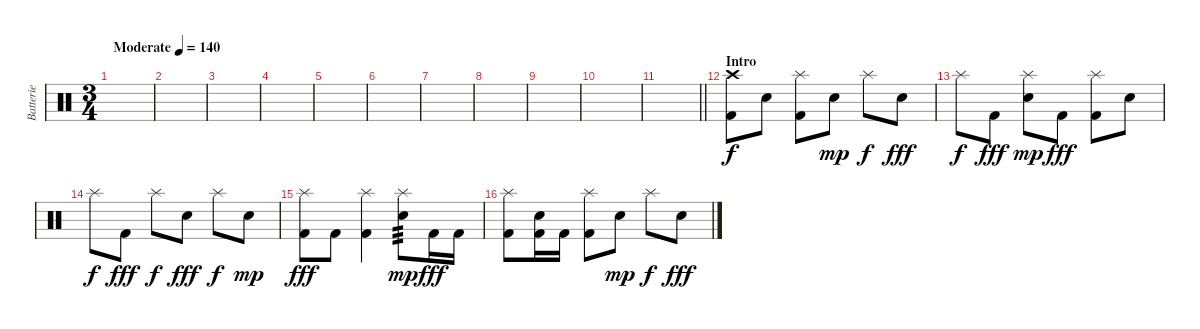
\track ("Batterie" "Batterie") {instrument percussion}
\staff {score}
\articulation defaults
\ts (3 4)
\tempo (140 "Moderate")
\clef neutral
\ks c
|
|
|
|
|
|
|
|
|
|
\barLineRight lightlight
|
\section ("" "Intro")
("Crash high (hit)" "Kick (hit) 2").8 "Electric Snare (hit)".8 ("Splash (hit)" "Kick (hit) 2").8 "Electric Snare (hit)".8{dy mp} "Splash (hit)".8{dy f} "Electric Snare (hit)".8{dy fff} |
"Splash (hit)".8{dy f} "Kick (hit) 2".8{dy fff} ("Splash (hit)" "Electric Snare (hit)").8{dy mp} "Kick (hit) 2".8{dy fff} ("Splash (hit)" "Kick (hit) 2").8 "Electric Snare (hit)".8 |
"Splash (hit)".8{dy f} "Kick (hit) 2".8{dy fff} "Splash (hit)".8{dy f} "Electric Snare (hit)".8{dy fff} "Splash (hit)".8{dy f} "Electric Snare (hit)".8{dy mp} |
("Splash (hit)" "Kick (hit) 2").8{dy fff} "Kick (hit) 2".8 ("Splash (hit)" "Kick (hit) 2").4 ("Splash (hit)" "Electric Snare (hit)").8{tp 3 dy mp} "Kick (hit) 2".16{dy fff} "Kick (hit) 2".16 |
("Splash (hit)" "Kick (hit) 2").8 ("Electric Snare (hit)" "Kick (hit) 2").16 "Kick (hit) 2".16 ("Splash (hit)" "Kick (hit) 2").8 "Electric Snare (hit)".8{dy mp} "Splash (hit)".8{dy f} "Electric Snare (hit)".8{dy fff}
